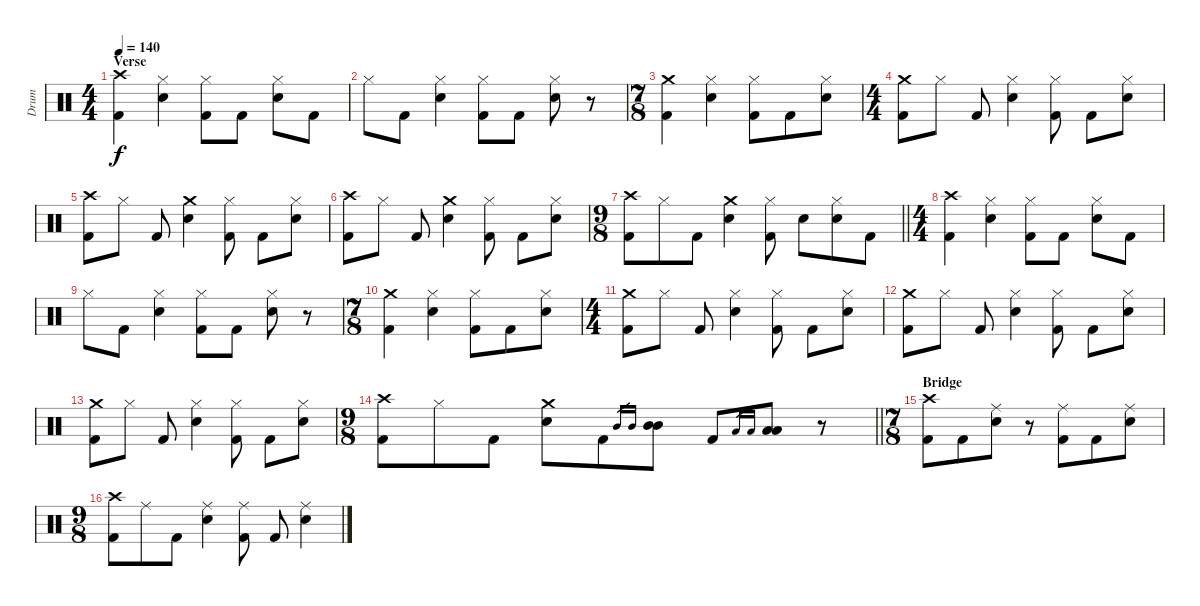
\track ("Drum" "Drum") {instrument percussion}
\staff {score}
\articulation defaults
\ts (4 4)
\section ("" "Verse")
\tempo 140
\clef neutral
\ks c
("Crash high (hit)" "Kick (hit) 2").4{dy f} ("Hi-Hat (closed)" "Electric Snare (hit)").4 ("Hi-Hat (closed)" "Kick (hit) 2").8 "Kick (hit) 2".8 ("Hi-Hat (closed)" "Electric Snare (hit)").8 "Kick (hit) 2".8 |
"Hi-Hat (closed)".8 "Kick (hit) 2".8 ("Hi-Hat (closed)" "Electric Snare (hit)").4 ("Hi-Hat (closed)" "Kick (hit) 2").8 "Kick (hit) 2".8 ("Hi-Hat (closed)" "Electric Snare (hit)").8 r.8 |
\ts (7 8)
("Crash medium (hit)" "Kick (hit) 2").4 ("Hi-Hat (closed)" "Electric Snare (hit)").4 ("Hi-Hat (closed)" "Kick (hit) 2").8 "Kick (hit) 2".8 ("Hi-Hat (closed)" "Electric Snare (hit)").8 |
\ts (4 4)
("Crash medium (hit)" "Kick (hit) 2").8 "Hi-Hat (closed)".8 "Kick (hit) 2".8 ("Hi-Hat (closed)" "Electric Snare (hit)").4 ("Hi-Hat (closed)" "Kick (hit) 2").8 "Kick (hit) 2".8 ("Hi-Hat (closed)" "Electric Snare (hit)").8 |
("Crash high (hit)" "Kick (hit) 2").8 "Hi-Hat (closed)".8 "Kick (hit) 2".8 ("Crash medium (hit)" "Electric Snare (hit)").4 ("Hi-Hat (closed)" "Kick (hit) 2").8 "Kick (hit) 2".8 ("Hi-Hat (closed)" "Electric Snare (hit)").8 |
("Crash high (hit)" "Kick (hit) 2").8 "Hi-Hat (closed)".8 "Kick (hit) 2".8 ("Crash medium (hit)" "Electric Snare (hit)").4 ("Hi-Hat (closed)" "Kick (hit) 2").8 "Kick (hit) 2".8 ("Hi-Hat (closed)" "Electric Snare (hit)").8 |
\ts (9 8)
\barLineRight lightlight
("Crash high (hit)" "Kick (hit) 2").8 "Hi-Hat (closed)".8 "Kick (hit) 2".8 ("Crash medium (hit)" "Electric Snare (hit)").4 ("Hi-Hat (closed)" "Kick (hit) 2").8 "Electric Snare (hit)".8 ("Hi-Hat (closed)" "Electric Snare (hit)").8 "Kick (hit) 2".8 |
\ts (4 4)
\section ("" "")
("Crash high (hit)" "Kick (hit) 2").4 ("Hi-Hat (closed)" "Electric Snare (hit)").4 ("Hi-Hat (closed)" "Kick (hit) 2").8 "Kick (hit) 2".8 ("Hi-Hat (closed)" "Electric Snare (hit)").8 "Kick (hit) 2".8 |
"Hi-Hat (closed)".8 "Kick (hit) 2".8 ("Hi-Hat (closed)" "Electric Snare (hit)").4 ("Hi-Hat (closed)" "Kick (hit) 2").8 "Kick (hit) 2".8 ("Hi-Hat (closed)" "Electric Snare (hit)").8 r.8 |
\ts (7 8)
("Crash medium (hit)" "Kick (hit) 2").4 ("Hi-Hat (closed)" "Electric Snare (hit)").4 ("Hi-Hat (closed)" "Kick (hit) 2").8 "Kick (hit) 2".8 ("Hi-Hat (closed)" "Electric Snare (hit)").8 |
\ts (4 4)
("Crash medium (hit)" "Kick (hit) 2").8 "Hi-Hat (closed)".8 "Kick (hit) 2".8 ("Hi-Hat (closed)" "Electric Snare (hit)").4 ("Hi-Hat (closed)" "Kick (hit) 2").8 "Kick (hit) 2".8 ("Hi-Hat (closed)" "Electric Snare (hit)").8 |
("Crash medium (hit)" "Kick (hit) 2").8 "Hi-Hat (closed)".8 "Kick (hit) 2".8 ("Hi-Hat (closed)" "Electric Snare (hit)").4 ("Hi-Hat (closed)" "Kick (hit) 2").8 "Kick (hit) 2".8 ("Hi-Hat (closed)" "Electric Snare (hit)").8 |
("Crash medium (hit)" "Kick (hit) 2").8 "Hi-Hat (closed)".8 "Kick (hit) 2".8 ("Hi-Hat (closed)" "Electric Snare (hit)").4 ("Hi-Hat (closed)" "Kick (hit) 2").8 "Kick (hit) 2".8 ("Hi-Hat (closed)" "Electric Snare (hit)").8 |
\ts (9 8)
\barLineRight lightlight
("Crash high (hit)" "Kick (hit) 2").8 "Hi-Hat (closed)".8 "Kick (hit) 2".8 ("Crash medium (hit)" "Electric Snare (hit)").8 "Kick (hit) 2".8 "Mid Tom (hit)".16{gr} "Mid Tom (hit)".16{gr} ("Mid Tom (hit)" "Mid Tom (hit)").8 "Kick (hit) 2".8 "Low Tom (hit)".16{gr} "Low Tom (hit)".16{gr} ("Low Tom (hit)" "Low Tom (hit)").8 r.8 |
\ts (7 8)
\section ("" "Bridge")
("Crash high (hit)" "Kick (hit) 2").8 "Kick (hit) 2".8 ("Ride (middle)" "Electric Snare (hit)").8 r.8 ("Ride (middle)" "Kick (hit) 2").8 "Kick (hit) 2".8 ("Ride (middle)" "Electric Snare (hit)").8 |
\ts (9 8)
("Crash high (hit)" "Kick (hit) 2").8 "Ride (middle)".8 "Kick (hit) 2".8 ("Ride (middle)" "Electric Snare (hit)").4 ("Ride (middle)" "Kick (hit) 2").8 "Kick (hit) 2".8 ("Ride (middle)" "Electric Snare (hit)").4
